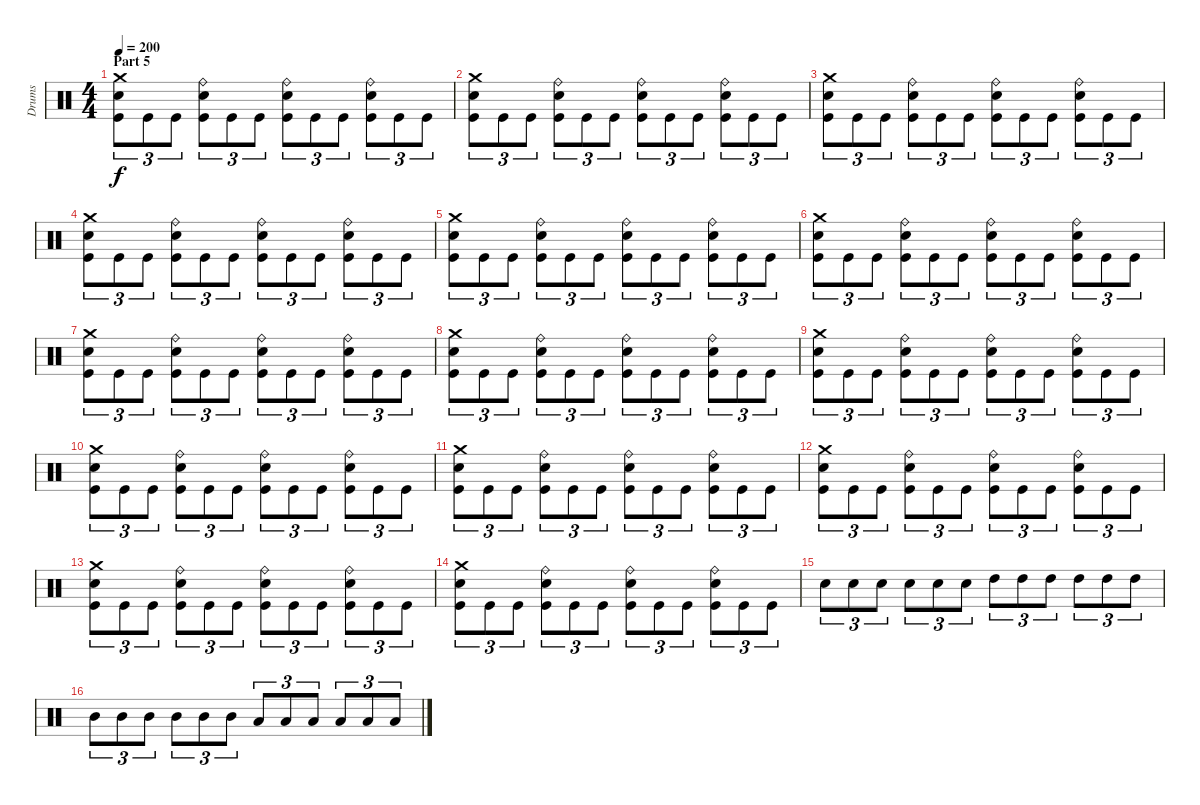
\track ("Drums" "Drums") {instrument percussion}
\staff {score}
\articulation defaults
\ts (4 4)
\section ("" "Part 5")
\tempo 200
\clef neutral
\ks c
("Crash medium (hit)" "Electric Snare (hit)" "Kick (hit)").8{tu (3 2) dy f} "Kick (hit)".8{tu (3 2)} "Kick (hit)".8{tu (3 2)} ("Ride (bell)" "Electric Snare (hit)" "Kick (hit)").8{tu (3 2)} "Kick (hit)".8{tu (3 2)} "Kick (hit)".8{tu (3 2)} ("Ride (bell)" "Electric Snare (hit)" "Kick (hit)").8{tu (3 2)} "Kick (hit)".8{tu (3 2)} "Kick (hit)".8{tu (3 2)} ("Ride (bell)" "Electric Snare (hit)" "Kick (hit)").8{tu (3 2)} "Kick (hit)".8{tu (3 2)} "Kick (hit)".8{tu (3 2)} |
("Crash medium (hit)" "Electric Snare (hit)" "Kick (hit)").8{tu (3 2)} "Kick (hit)".8{tu (3 2)} "Kick (hit)".8{tu (3 2)} ("Ride (bell)" "Electric Snare (hit)" "Kick (hit)").8{tu (3 2)} "Kick (hit)".8{tu (3 2)} "Kick (hit)".8{tu (3 2)} ("Ride (bell)" "Electric Snare (hit)" "Kick (hit)").8{tu (3 2)} "Kick (hit)".8{tu (3 2)} "Kick (hit)".8{tu (3 2)} ("Ride (bell)" "Electric Snare (hit)" "Kick (hit)").8{tu (3 2)} "Kick (hit)".8{tu (3 2)} "Kick (hit)".8{tu (3 2)} |
("Crash medium (hit)" "Electric Snare (hit)" "Kick (hit)").8{tu (3 2)} "Kick (hit)".8{tu (3 2)} "Kick (hit)".8{tu (3 2)} ("Ride (bell)" "Electric Snare (hit)" "Kick (hit)").8{tu (3 2)} "Kick (hit)".8{tu (3 2)} "Kick (hit)".8{tu (3 2)} ("Ride (bell)" "Electric Snare (hit)" "Kick (hit)").8{tu (3 2)} "Kick (hit)".8{tu (3 2)} "Kick (hit)".8{tu (3 2)} ("Ride (bell)" "Electric Snare (hit)" "Kick (hit)").8{tu (3 2)} "Kick (hit)".8{tu (3 2)} "Kick (hit)".8{tu (3 2)} |
("Crash medium (hit)" "Electric Snare (hit)" "Kick (hit)").8{tu (3 2)} "Kick (hit)".8{tu (3 2)} "Kick (hit)".8{tu (3 2)} ("Ride (bell)" "Electric Snare (hit)" "Kick (hit)").8{tu (3 2)} "Kick (hit)".8{tu (3 2)} "Kick (hit)".8{tu (3 2)} ("Ride (bell)" "Electric Snare (hit)" "Kick (hit)").8{tu (3 2)} "Kick (hit)".8{tu (3 2)} "Kick (hit)".8{tu (3 2)} ("Ride (bell)" "Electric Snare (hit)" "Kick (hit)").8{tu (3 2)} "Kick (hit)".8{tu (3 2)} "Kick (hit)".8{tu (3 2)} |
("Crash medium (hit)" "Electric Snare (hit)" "Kick (hit)").8{tu (3 2)} "Kick (hit)".8{tu (3 2)} "Kick (hit)".8{tu (3 2)} ("Ride (bell)" "Electric Snare (hit)" "Kick (hit)").8{tu (3 2)} "Kick (hit)".8{tu (3 2)} "Kick (hit)".8{tu (3 2)} ("Ride (bell)" "Electric Snare (hit)" "Kick (hit)").8{tu (3 2)} "Kick (hit)".8{tu (3 2)} "Kick (hit)".8{tu (3 2)} ("Ride (bell)" "Electric Snare (hit)" "Kick (hit)").8{tu (3 2)} "Kick (hit)".8{tu (3 2)} "Kick (hit)".8{tu (3 2)} |
("Crash medium (hit)" "Electric Snare (hit)" "Kick (hit)").8{tu (3 2)} "Kick (hit)".8{tu (3 2)} "Kick (hit)".8{tu (3 2)} ("Ride (bell)" "Electric Snare (hit)" "Kick (hit)").8{tu (3 2)} "Kick (hit)".8{tu (3 2)} "Kick (hit)".8{tu (3 2)} ("Ride (bell)" "Electric Snare (hit)" "Kick (hit)").8{tu (3 2)} "Kick (hit)".8{tu (3 2)} "Kick (hit)".8{tu (3 2)} ("Ride (bell)" "Electric Snare (hit)" "Kick (hit)").8{tu (3 2)} "Kick (hit)".8{tu (3 2)} "Kick (hit)".8{tu (3 2)} |
("Crash medium (hit)" "Electric Snare (hit)" "Kick (hit)").8{tu (3 2)} "Kick (hit)".8{tu (3 2)} "Kick (hit)".8{tu (3 2)} ("Ride (bell)" "Electric Snare (hit)" "Kick (hit)").8{tu (3 2)} "Kick (hit)".8{tu (3 2)} "Kick (hit)".8{tu (3 2)} ("Ride (bell)" "Electric Snare (hit)" "Kick (hit)").8{tu (3 2)} "Kick (hit)".8{tu (3 2)} "Kick (hit)".8{tu (3 2)} ("Ride (bell)" "Electric Snare (hit)" "Kick (hit)").8{tu (3 2)} "Kick (hit)".8{tu (3 2)} "Kick (hit)".8{tu (3 2)} |
("Crash medium (hit)" "Electric Snare (hit)" "Kick (hit)").8{tu (3 2)} "Kick (hit)".8{tu (3 2)} "Kick (hit)".8{tu (3 2)} ("Ride (bell)" "Electric Snare (hit)" "Kick (hit)").8{tu (3 2)} "Kick (hit)".8{tu (3 2)} "Kick (hit)".8{tu (3 2)} ("Ride (bell)" "Electric Snare (hit)" "Kick (hit)").8{tu (3 2)} "Kick (hit)".8{tu (3 2)} "Kick (hit)".8{tu (3 2)} ("Ride (bell)" "Electric Snare (hit)" "Kick (hit)").8{tu (3 2)} "Kick (hit)".8{tu (3 2)} "Kick (hit)".8{tu (3 2)} |
("Crash medium (hit)" "Electric Snare (hit)" "Kick (hit)").8{tu (3 2)} "Kick (hit)".8{tu (3 2)} "Kick (hit)".8{tu (3 2)} ("Ride (bell)" "Electric Snare (hit)" "Kick (hit)").8{tu (3 2)} "Kick (hit)".8{tu (3 2)} "Kick (hit)".8{tu (3 2)} ("Ride (bell)" "Electric Snare (hit)" "Kick (hit)").8{tu (3 2)} "Kick (hit)".8{tu (3 2)} "Kick (hit)".8{tu (3 2)} ("Ride (bell)" "Electric Snare (hit)" "Kick (hit)").8{tu (3 2)} "Kick (hit)".8{tu (3 2)} "Kick (hit)".8{tu (3 2)} |
("Crash medium (hit)" "Electric Snare (hit)" "Kick (hit)").8{tu (3 2)} "Kick (hit)".8{tu (3 2)} "Kick (hit)".8{tu (3 2)} ("Ride (bell)" "Electric Snare (hit)" "Kick (hit)").8{tu (3 2)} "Kick (hit)".8{tu (3 2)} "Kick (hit)".8{tu (3 2)} ("Ride (bell)" "Electric Snare (hit)" "Kick (hit)").8{tu (3 2)} "Kick (hit)".8{tu (3 2)} "Kick (hit)".8{tu (3 2)} ("Ride (bell)" "Electric Snare (hit)" "Kick (hit)").8{tu (3 2)} "Kick (hit)".8{tu (3 2)} "Kick (hit)".8{tu (3 2)} |
("Crash medium (hit)" "Electric Snare (hit)" "Kick (hit)").8{tu (3 2)} "Kick (hit)".8{tu (3 2)} "Kick (hit)".8{tu (3 2)} ("Ride (bell)" "Electric Snare (hit)" "Kick (hit)").8{tu (3 2)} "Kick (hit)".8{tu (3 2)} "Kick (hit)".8{tu (3 2)} ("Ride (bell)" "Electric Snare (hit)" "Kick (hit)").8{tu (3 2)} "Kick (hit)".8{tu (3 2)} "Kick (hit)".8{tu (3 2)} ("Ride (bell)" "Electric Snare (hit)" "Kick (hit)").8{tu (3 2)} "Kick (hit)".8{tu (3 2)} "Kick (hit)".8{tu (3 2)} |
("Crash medium (hit)" "Electric Snare (hit)" "Kick (hit)").8{tu (3 2)} "Kick (hit)".8{tu (3 2)} "Kick (hit)".8{tu (3 2)} ("Ride (bell)" "Electric Snare (hit)" "Kick (hit)").8{tu (3 2)} "Kick (hit)".8{tu (3 2)} "Kick (hit)".8{tu (3 2)} ("Ride (bell)" "Electric Snare (hit)" "Kick (hit)").8{tu (3 2)} "Kick (hit)".8{tu (3 2)} "Kick (hit)".8{tu (3 2)} ("Ride (bell)" "Electric Snare (hit)" "Kick (hit)").8{tu (3 2)} "Kick (hit)".8{tu (3 2)} "Kick (hit)".8{tu (3 2)} |
("Crash medium (hit)" "Electric Snare (hit)" "Kick (hit)").8{tu (3 2)} "Kick (hit)".8{tu (3 2)} "Kick (hit)".8{tu (3 2)} ("Ride (bell)" "Electric Snare (hit)" "Kick (hit)").8{tu (3 2)} "Kick (hit)".8{tu (3 2)} "Kick (hit)".8{tu (3 2)} ("Ride (bell)" "Electric Snare (hit)" "Kick (hit)").8{tu (3 2)} "Kick (hit)".8{tu (3 2)} "Kick (hit)".8{tu (3 2)} ("Ride (bell)" "Electric Snare (hit)" "Kick (hit)").8{tu (3 2)} "Kick (hit)".8{tu (3 2)} "Kick (hit)".8{tu (3 2)} |
("Crash medium (hit)" "Electric Snare (hit)" "Kick (hit)").8{tu (3 2)} "Kick (hit)".8{tu (3 2)} "Kick (hit)".8{tu (3 2)} ("Ride (bell)" "Electric Snare (hit)" "Kick (hit)").8{tu (3 2)} "Kick (hit)".8{tu (3 2)} "Kick (hit)".8{tu (3 2)} ("Ride (bell)" "Electric Snare (hit)" "Kick (hit)").8{tu (3 2)} "Kick (hit)".8{tu (3 2)} "Kick (hit)".8{tu (3 2)} ("Ride (bell)" "Electric Snare (hit)" "Kick (hit)").8{tu (3 2)} "Kick (hit)".8{tu (3 2)} "Kick (hit)".8{tu (3 2)} |
"Electric Snare (hit)".8{tu (3 2)} "Electric Snare (hit)".8{tu (3 2)} "Electric Snare (hit)".8{tu (3 2)} "Electric Snare (hit)".8{tu (3 2)} "Electric Snare (hit)".8{tu (3 2)} "Electric Snare (hit)".8{tu (3 2)} "High Tom (hit)".8{tu (3 2)} "High Tom (hit)".8{tu (3 2)} "High Tom (hit)".8{tu (3 2)} "High Tom (hit)".8{tu (3 2)} "High Tom (hit)".8{tu (3 2)} "High Tom (hit)".8{tu (3 2)} |
"Mid Tom (hit)".8{tu (3 2)} "Mid Tom (hit)".8{tu (3 2)} "Mid Tom (hit)".8{tu (3 2)} "Mid Tom (hit)".8{tu (3 2)} "Mid Tom (hit)".8{tu (3 2)} "Mid Tom (hit)".8{tu (3 2)} "Low Tom (hit)".8{tu (3 2)} "Low Tom (hit)".8{tu (3 2)} "Low Tom (hit)".8{tu (3 2)} "Low Tom (hit)".8{tu (3 2)} "Low Tom (hit)".8{tu (3 2)} "Low Tom (hit)".8{tu (3 2)}
